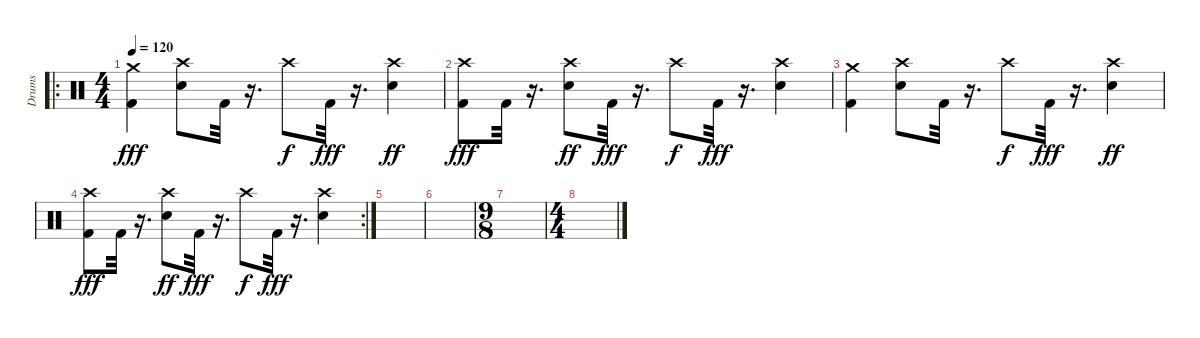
\track ("Drums" "Drums") {instrument percussion}
\staff {score}
\articulation defaults
\ro
\ts (4 4)
\tempo 120
\clef neutral
\ks c
("Crash medium (hit)" "Kick (hit) 2").4{dy fff} ("Crash high (hit)" "Snare (hit) 2").8 "Kick (hit) 2".32 r.16{d} "Crash high (hit)".8{dy f} "Kick (hit) 2".32{dy fff} r.16{d} ("Crash high (hit)" "Snare (hit) 2").4{dy ff} |
("Crash high (hit)" "Kick (hit) 2").8{dy fff} "Kick (hit) 2".32 r.16{d} ("Crash high (hit)" "Snare (hit) 2").8{dy ff} "Kick (hit) 2".32{dy fff} r.16{d} "Crash high (hit)".8{dy f} "Kick (hit) 2".32{dy fff} r.16{d} ("Crash high (hit)" "Snare (hit) 2").4 |
("Crash medium (hit)" "Kick (hit) 2").4 ("Crash high (hit)" "Snare (hit) 2").8 "Kick (hit) 2".32 r.16{d} "Crash high (hit)".8{dy f} "Kick (hit) 2".32{dy fff} r.16{d} ("Crash high (hit)" "Snare (hit) 2").4{dy ff} |
\rc 2
("Crash high (hit)" "Kick (hit) 2").8{dy fff} "Kick (hit) 2".32 r.16{d} ("Crash high (hit)" "Snare (hit) 2").8{dy ff} "Kick (hit) 2".32{dy fff} r.16{d} "Crash high (hit)".8{dy f} "Kick (hit) 2".32{dy fff} r.16{d} ("Crash high (hit)" "Snare (hit) 2").4 |
|
|
\ts (9 8)
|
\ts (4 4)
